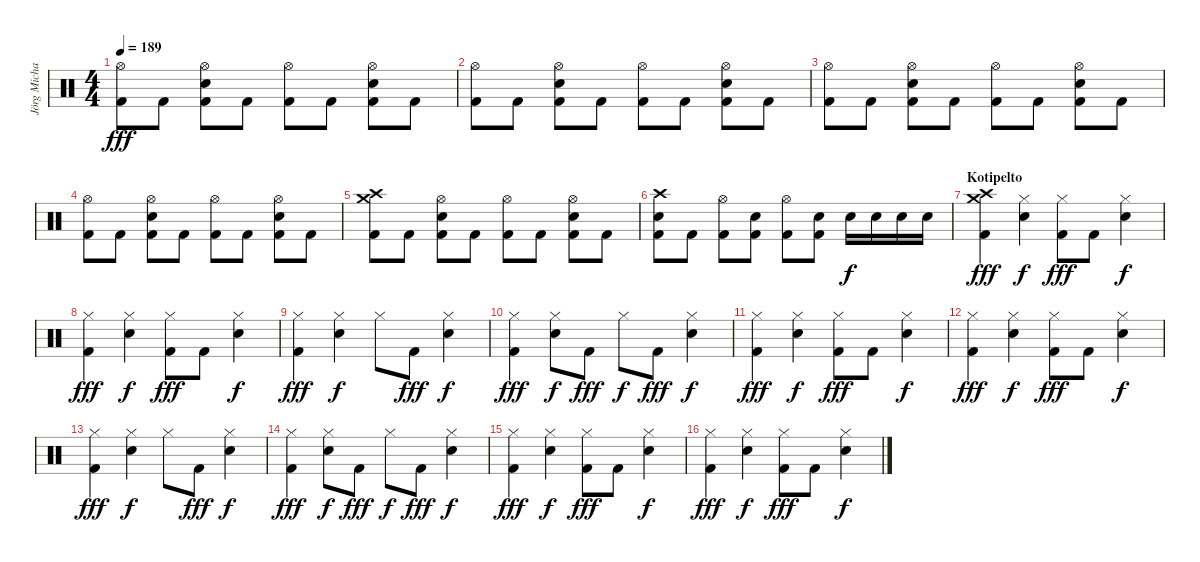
\track ("Jörg Michael" "Jörg Micha") {instrument percussion}
\staff {score}
\articulation defaults
\ts (4 4)
\tempo 189
\clef neutral
\ks c
("Hi-Hat (open)" "Kick (hit) 2").8{dy fff} "Kick (hit) 2".8 ("Hi-Hat (open)" "Electric Snare (hit)" "Kick (hit) 2").8 "Kick (hit) 2".8 ("Hi-Hat (open)" "Kick (hit) 2").8 "Kick (hit) 2".8 ("Hi-Hat (open)" "Electric Snare (hit)" "Kick (hit) 2").8 "Kick (hit) 2".8 |
("Hi-Hat (open)" "Kick (hit) 2").8 "Kick (hit) 2".8 ("Hi-Hat (open)" "Electric Snare (hit)" "Kick (hit) 2").8 "Kick (hit) 2".8 ("Hi-Hat (open)" "Kick (hit) 2").8 "Kick (hit) 2".8 ("Hi-Hat (open)" "Electric Snare (hit)" "Kick (hit) 2").8 "Kick (hit) 2".8 |
("Hi-Hat (open)" "Kick (hit) 2").8 "Kick (hit) 2".8 ("Hi-Hat (open)" "Electric Snare (hit)" "Kick (hit) 2").8 "Kick (hit) 2".8 ("Hi-Hat (open)" "Kick (hit) 2").8 "Kick (hit) 2".8 ("Hi-Hat (open)" "Electric Snare (hit)" "Kick (hit) 2").8 "Kick (hit) 2".8 |
("Hi-Hat (open)" "Kick (hit) 2").8 "Kick (hit) 2".8 ("Hi-Hat (open)" "Electric Snare (hit)" "Kick (hit) 2").8 "Kick (hit) 2".8 ("Hi-Hat (open)" "Kick (hit) 2").8 "Kick (hit) 2".8 ("Hi-Hat (open)" "Electric Snare (hit)" "Kick (hit) 2").8 "Kick (hit) 2".8 |
("Crash high (hit)" "Crash medium (hit)" "Kick (hit) 2").8 "Kick (hit) 2".8 ("Hi-Hat (open)" "Electric Snare (hit)" "Kick (hit) 2").8 "Kick (hit) 2".8 ("Hi-Hat (open)" "Kick (hit) 2").8 "Kick (hit) 2".8 ("Hi-Hat (open)" "Electric Snare (hit)" "Kick (hit) 2").8 "Kick (hit) 2".8 |
("Crash high (hit)" "Electric Snare (hit)" "Kick (hit) 2").8 "Kick (hit) 2".8 ("Hi-Hat (open)" "Kick (hit) 2").8 ("Electric Snare (hit)" "Kick (hit) 2").8 ("Hi-Hat (open)" "Kick (hit) 2").8 ("Electric Snare (hit)" "Kick (hit) 2").8 "Electric Snare (hit)".16{dy f} "Electric Snare (hit)".16 "Electric Snare (hit)".16 "Electric Snare (hit)".16 |
\section ("" "Kotipelto")
("Crash medium (hit)" "Crash high (hit)" "Kick (hit) 2").4{dy fff} ("Hi-Hat (closed)" "Electric Snare (hit)").4{dy f} ("Hi-Hat (closed)" "Kick (hit) 2").8{dy fff} "Kick (hit) 2".8 ("Hi-Hat (closed)" "Electric Snare (hit)").4{dy f} |
("Hi-Hat (closed)" "Kick (hit) 2").4{dy fff} ("Hi-Hat (closed)" "Electric Snare (hit)").4{dy f} ("Hi-Hat (closed)" "Kick (hit) 2").8{dy fff} "Kick (hit) 2".8 ("Hi-Hat (closed)" "Electric Snare (hit)").4{dy f} |
("Hi-Hat (closed)" "Kick (hit) 2").4{dy fff} ("Hi-Hat (closed)" "Electric Snare (hit)").4{dy f} "Hi-Hat (closed)".8 "Kick (hit) 2".8{dy fff} ("Hi-Hat (closed)" "Electric Snare (hit)").4{dy f} |
("Hi-Hat (closed)" "Kick (hit) 2").4{dy fff} ("Hi-Hat (closed)" "Electric Snare (hit)").8{dy f} "Kick (hit) 2".8{dy fff} "Hi-Hat (closed)".8{dy f} "Kick (hit) 2".8{dy fff} ("Hi-Hat (closed)" "Electric Snare (hit)").4{dy f} |
("Hi-Hat (closed)" "Kick (hit) 2").4{dy fff} ("Hi-Hat (closed)" "Electric Snare (hit)").4{dy f} ("Hi-Hat (closed)" "Kick (hit) 2").8{dy fff} "Kick (hit) 2".8 ("Hi-Hat (closed)" "Electric Snare (hit)").4{dy f} |
("Hi-Hat (closed)" "Kick (hit) 2").4{dy fff} ("Hi-Hat (closed)" "Electric Snare (hit)").4{dy f} ("Hi-Hat (closed)" "Kick (hit) 2").8{dy fff} "Kick (hit) 2".8 ("Hi-Hat (closed)" "Electric Snare (hit)").4{dy f} |
("Hi-Hat (closed)" "Kick (hit) 2").4{dy fff} ("Hi-Hat (closed)" "Electric Snare (hit)").4{dy f} "Hi-Hat (closed)".8 "Kick (hit) 2".8{dy fff} ("Hi-Hat (closed)" "Electric Snare (hit)").4{dy f} |
("Hi-Hat (closed)" "Kick (hit) 2").4{dy fff} ("Hi-Hat (closed)" "Electric Snare (hit)").8{dy f} "Kick (hit) 2".8{dy fff} "Hi-Hat (closed)".8{dy f} "Kick (hit) 2".8{dy fff} ("Hi-Hat (closed)" "Electric Snare (hit)").4{dy f} |
("Hi-Hat (closed)" "Kick (hit) 2").4{dy fff} ("Hi-Hat (closed)" "Electric Snare (hit)").4{dy f} ("Hi-Hat (closed)" "Kick (hit) 2").8{dy fff} "Kick (hit) 2".8 ("Hi-Hat (closed)" "Electric Snare (hit)").4{dy f} |
("Hi-Hat (closed)" "Kick (hit) 2").4{dy fff} ("Hi-Hat (closed)" "Electric Snare (hit)").4{dy f} ("Hi-Hat (closed)" "Kick (hit) 2").8{dy fff} "Kick (hit) 2".8 ("Hi-Hat (closed)" "Electric Snare (hit)").4{dy f}
